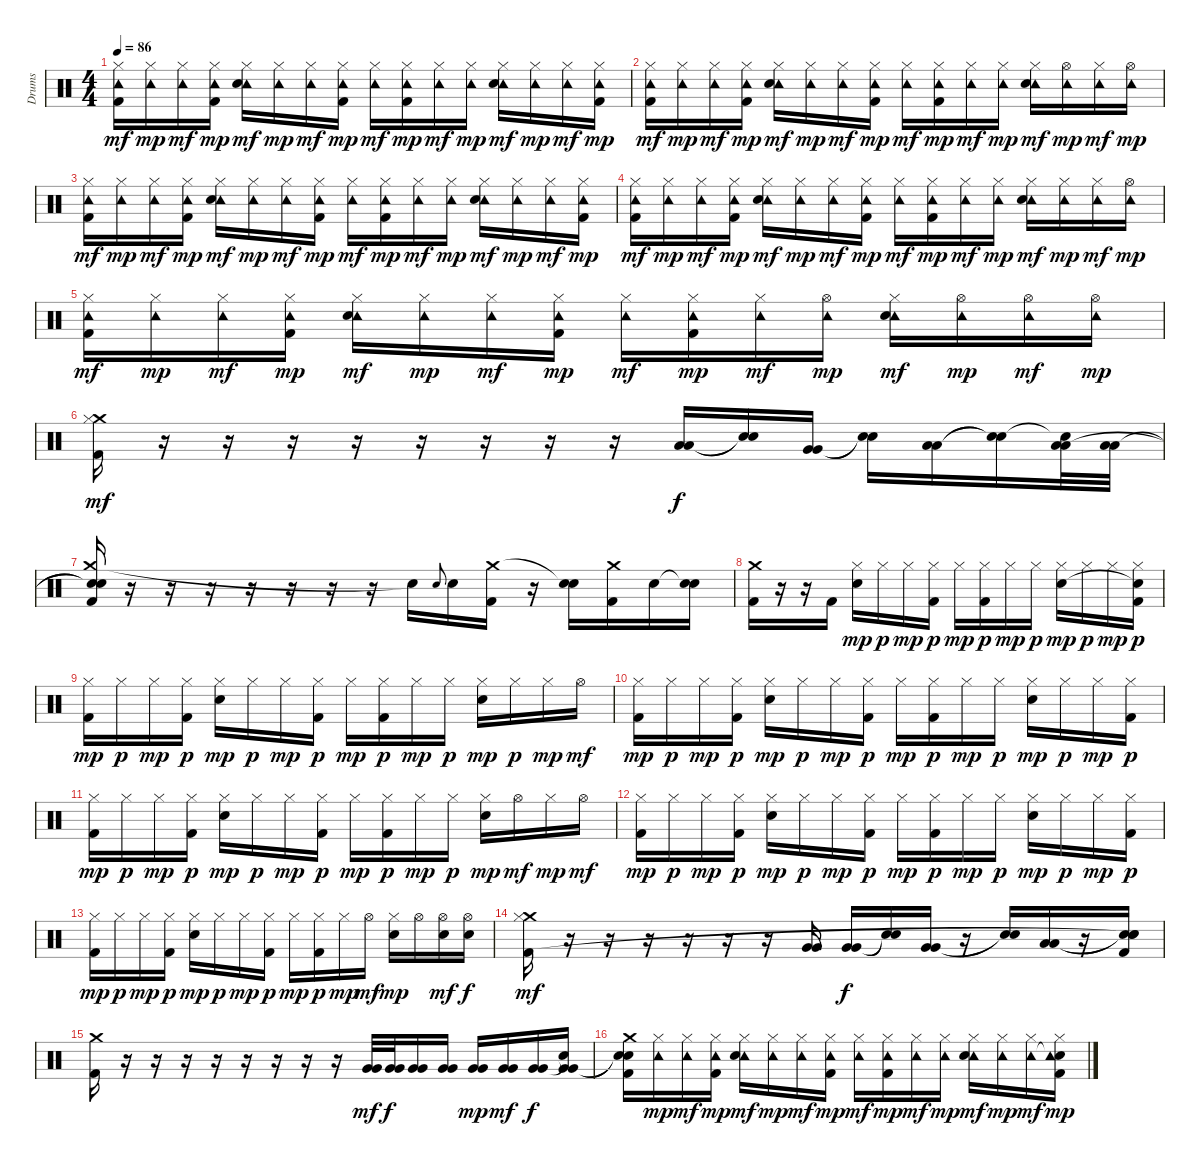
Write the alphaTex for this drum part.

\track ("Drums" "Drums") {instrument percussion}
\staff {score}
\articulation defaults
\ts (4 4)
\tempo 86
\clef neutral
\ks c
("Hi-Hat (closed)" "Tambourine (hit)" "Kick (hit) 2").16{dy mf} ("Hi-Hat (closed)" "Tambourine (hit)").16{dy mp} ("Hi-Hat (closed)" "Tambourine (hit)").16{dy mf} ("Hi-Hat (closed)" "Tambourine (hit)" "Kick (hit) 2").16{dy mp} ("Hi-Hat (closed)" "Tambourine (hit)" "Electric Snare (hit)").16{dy mf} ("Hi-Hat (closed)" "Tambourine (hit)").16{dy mp} ("Hi-Hat (closed)" "Tambourine (hit)").16{dy mf} ("Hi-Hat (closed)" "Tambourine (hit)" "Kick (hit) 2").16{dy mp} ("Hi-Hat (closed)" "Tambourine (hit)").16{dy mf} ("Hi-Hat (closed)" "Tambourine (hit)" "Kick (hit) 2").16{dy mp} ("Hi-Hat (closed)" "Tambourine (hit)").16{dy mf} ("Hi-Hat (closed)" "Tambourine (hit)").16{dy mp} ("Hi-Hat (closed)" "Tambourine (hit)" "Electric Snare (hit)").16{dy mf} ("Hi-Hat (closed)" "Tambourine (hit)").16{dy mp} ("Hi-Hat (closed)" "Tambourine (hit)").16{dy mf} ("Hi-Hat (closed)" "Tambourine (hit)" "Kick (hit) 2").16{dy mp} |
("Hi-Hat (closed)" "Tambourine (hit)" "Kick (hit) 2").16{dy mf} ("Hi-Hat (closed)" "Tambourine (hit)").16{dy mp} ("Hi-Hat (closed)" "Tambourine (hit)").16{dy mf} ("Hi-Hat (closed)" "Tambourine (hit)" "Kick (hit) 2").16{dy mp} ("Hi-Hat (closed)" "Tambourine (hit)" "Electric Snare (hit)").16{dy mf} ("Hi-Hat (closed)" "Tambourine (hit)").16{dy mp} ("Hi-Hat (closed)" "Tambourine (hit)").16{dy mf} ("Hi-Hat (closed)" "Tambourine (hit)" "Kick (hit) 2").16{dy mp} ("Hi-Hat (closed)" "Tambourine (hit)").16{dy mf} ("Hi-Hat (closed)" "Tambourine (hit)" "Kick (hit) 2").16{dy mp} ("Hi-Hat (closed)" "Tambourine (hit)").16{dy mf} ("Hi-Hat (closed)" "Tambourine (hit)").16{dy mp} ("Hi-Hat (closed)" "Tambourine (hit)" "Electric Snare (hit)").16{dy mf} ("Hi-Hat (open)" "Tambourine (hit)").16{dy mp} ("Hi-Hat (closed)" "Tambourine (hit)").16{dy mf} ("Hi-Hat (open)" "Tambourine (hit)").16{dy mp} |
("Hi-Hat (closed)" "Tambourine (hit)" "Kick (hit) 2").16{dy mf} ("Hi-Hat (closed)" "Tambourine (hit)").16{dy mp} ("Hi-Hat (closed)" "Tambourine (hit)").16{dy mf} ("Hi-Hat (closed)" "Tambourine (hit)" "Kick (hit) 2").16{dy mp} ("Hi-Hat (closed)" "Tambourine (hit)" "Electric Snare (hit)").16{dy mf} ("Hi-Hat (closed)" "Tambourine (hit)").16{dy mp} ("Hi-Hat (closed)" "Tambourine (hit)").16{dy mf} ("Hi-Hat (closed)" "Tambourine (hit)" "Kick (hit) 2").16{dy mp} ("Hi-Hat (closed)" "Tambourine (hit)").16{dy mf} ("Hi-Hat (closed)" "Tambourine (hit)" "Kick (hit) 2").16{dy mp} ("Hi-Hat (closed)" "Tambourine (hit)").16{dy mf} ("Hi-Hat (closed)" "Tambourine (hit)").16{dy mp} ("Hi-Hat (closed)" "Tambourine (hit)" "Electric Snare (hit)").16{dy mf} ("Hi-Hat (closed)" "Tambourine (hit)").16{dy mp} ("Hi-Hat (closed)" "Tambourine (hit)").16{dy mf} ("Hi-Hat (closed)" "Tambourine (hit)" "Kick (hit) 2").16{dy mp} |
("Hi-Hat (closed)" "Tambourine (hit)" "Kick (hit) 2").16{dy mf} ("Hi-Hat (closed)" "Tambourine (hit)").16{dy mp} ("Hi-Hat (closed)" "Tambourine (hit)").16{dy mf} ("Hi-Hat (closed)" "Tambourine (hit)" "Kick (hit) 2").16{dy mp} ("Hi-Hat (closed)" "Tambourine (hit)" "Electric Snare (hit)").16{dy mf} ("Hi-Hat (closed)" "Tambourine (hit)").16{dy mp} ("Hi-Hat (closed)" "Tambourine (hit)").16{dy mf} ("Hi-Hat (closed)" "Tambourine (hit)" "Kick (hit) 2").16{dy mp} ("Hi-Hat (closed)" "Tambourine (hit)").16{dy mf} ("Hi-Hat (closed)" "Tambourine (hit)" "Kick (hit) 2").16{dy mp} ("Hi-Hat (closed)" "Tambourine (hit)").16{dy mf} ("Hi-Hat (closed)" "Tambourine (hit)").16{dy mp} ("Hi-Hat (closed)" "Tambourine (hit)" "Electric Snare (hit)").16{dy mf} ("Hi-Hat (closed)" "Tambourine (hit)").16{dy mp} ("Hi-Hat (closed)" "Tambourine (hit)").16{dy mf} ("Hi-Hat (open)" "Tambourine (hit)").16{dy mp} |
("Hi-Hat (closed)" "Tambourine (hit)" "Kick (hit) 2").16{dy mf} ("Hi-Hat (closed)" "Tambourine (hit)").16{dy mp} ("Hi-Hat (closed)" "Tambourine (hit)").16{dy mf} ("Hi-Hat (closed)" "Tambourine (hit)" "Kick (hit) 2").16{dy mp} ("Hi-Hat (closed)" "Tambourine (hit)" "Electric Snare (hit)").16{dy mf} ("Hi-Hat (closed)" "Tambourine (hit)").16{dy mp} ("Hi-Hat (closed)" "Tambourine (hit)").16{dy mf} ("Hi-Hat (closed)" "Tambourine (hit)" "Kick (hit) 2").16{dy mp} ("Hi-Hat (closed)" "Tambourine (hit)").16{dy mf} ("Hi-Hat (closed)" "Tambourine (hit)" "Kick (hit) 2").16{dy mp} ("Hi-Hat (closed)" "Tambourine (hit)").16{dy mf} ("Hi-Hat (open)" "Tambourine (hit)").16{dy mp} ("Hi-Hat (closed)" "Tambourine (hit)" "Electric Snare (hit)").16{dy mf} ("Hi-Hat (open)" "Tambourine (hit)").16{dy mp} ("Hi-Hat (open)" "Tambourine (hit)").16{dy mf} ("Hi-Hat (open)" "Tambourine (hit)").16{dy mp} |
("Crash medium (hit)" "Hi-Hat (closed)" "Kick (hit) 2").16{dy mf} r.16 r.16 r.16 r.16 r.16 r.16 r.16 r.16 ("Low Tom (hit)" "Low Tom (hit)").16{dy f} ("Snare (hit)"{t} "Snare (hit)"{t}).16 ("Very Low Tom (hit)" "Very Low Tom (hit)").16 ("Snare (hit)"{t} "Snare (hit)"{t}).16 ("Low Floor Tom (hit)" "Low Floor Tom (hit)").16 ("Snare (hit)"{t} "Snare (hit)"{t}).16 ("Snare (hit)"{t} "Low Floor Tom (hit)" "Low Floor Tom (hit)").32 ("Low Floor Tom (hit)" "Low Floor Tom (hit)").32 |
("Crash medium (hit)" "Snare (hit)"{t} "Snare (hit)"{t} "Kick (hit) 2").16 r.16 r.16 r.16 r.16 r.16 r.16 r.16 "Snare (hit)"{t}.16 "Electric Snare (hit)".8{gr onbeat} "Electric Snare (hit)".16 ("Crash medium (hit)" "Kick (hit) 2").16 r.16 ("Snare (hit)"{t} "Electric Snare (hit)").16 ("Crash medium (hit)" "Kick (hit) 2").16 "Electric Snare (hit)".16 ("Snare (hit)"{t} "Electric Snare (hit)").16 |
("Crash medium (hit)" "Kick (hit) 2").16 r.16 r.16 "Kick (hit) 2".16 ("Hi-Hat (closed)" "Electric Snare (hit)").16{dy mp} "Hi-Hat (closed)".16{dy p} "Hi-Hat (closed)".16{dy mp} ("Hi-Hat (closed)" "Kick (hit) 2").16{dy p} "Hi-Hat (closed)".16{dy mp} ("Hi-Hat (closed)" "Kick (hit) 2").16{dy p} "Hi-Hat (closed)".16{dy mp} "Hi-Hat (closed)".16{dy p} ("Hi-Hat (closed)" "Electric Snare (hit)").16{dy mp} "Hi-Hat (closed)".16{dy p} "Hi-Hat (closed)".16{dy mp} ("Hi-Hat (closed)" "Snare (hit)"{t} "Kick (hit) 2").16{dy p} |
("Hi-Hat (closed)" "Kick (hit) 2").16{dy mp} "Hi-Hat (closed)".16{dy p} "Hi-Hat (closed)".16{dy mp} ("Hi-Hat (closed)" "Kick (hit) 2").16{dy p} ("Hi-Hat (closed)" "Electric Snare (hit)").16{dy mp} "Hi-Hat (closed)".16{dy p} "Hi-Hat (closed)".16{dy mp} ("Hi-Hat (closed)" "Kick (hit) 2").16{dy p} "Hi-Hat (closed)".16{dy mp} ("Hi-Hat (closed)" "Kick (hit) 2").16{dy p} "Hi-Hat (closed)".16{dy mp} "Hi-Hat (closed)".16{dy p} ("Hi-Hat (closed)" "Electric Snare (hit)").16{dy mp} "Hi-Hat (closed)".16{dy p} "Hi-Hat (closed)".16{dy mp} "Hi-Hat (open)".16{dy mf} |
("Hi-Hat (closed)" "Kick (hit) 2").16{dy mp} "Hi-Hat (closed)".16{dy p} "Hi-Hat (closed)".16{dy mp} ("Hi-Hat (closed)" "Kick (hit) 2").16{dy p} ("Hi-Hat (closed)" "Electric Snare (hit)").16{dy mp} "Hi-Hat (closed)".16{dy p} "Hi-Hat (closed)".16{dy mp} ("Hi-Hat (closed)" "Kick (hit) 2").16{dy p} "Hi-Hat (closed)".16{dy mp} ("Hi-Hat (closed)" "Kick (hit) 2").16{dy p} "Hi-Hat (closed)".16{dy mp} "Hi-Hat (closed)".16{dy p} ("Hi-Hat (closed)" "Electric Snare (hit)").16{dy mp} "Hi-Hat (closed)".16{dy p} "Hi-Hat (closed)".16{dy mp} ("Hi-Hat (closed)" "Kick (hit) 2").16{dy p} |
("Hi-Hat (closed)" "Kick (hit) 2").16{dy mp} "Hi-Hat (closed)".16{dy p} "Hi-Hat (closed)".16{dy mp} ("Hi-Hat (closed)" "Kick (hit) 2").16{dy p} ("Hi-Hat (closed)" "Electric Snare (hit)").16{dy mp} "Hi-Hat (closed)".16{dy p} "Hi-Hat (closed)".16{dy mp} ("Hi-Hat (closed)" "Kick (hit) 2").16{dy p} "Hi-Hat (closed)".16{dy mp} ("Hi-Hat (closed)" "Kick (hit) 2").16{dy p} "Hi-Hat (closed)".16{dy mp} "Hi-Hat (closed)".16{dy p} ("Hi-Hat (closed)" "Electric Snare (hit)").16{dy mp} "Hi-Hat (open)".16{dy mf} "Hi-Hat (closed)".16{dy mp} "Hi-Hat (open)".16{dy mf} |
("Hi-Hat (closed)" "Kick (hit) 2").16{dy mp} "Hi-Hat (closed)".16{dy p} "Hi-Hat (closed)".16{dy mp} ("Hi-Hat (closed)" "Kick (hit) 2").16{dy p} ("Hi-Hat (closed)" "Electric Snare (hit)").16{dy mp} "Hi-Hat (closed)".16{dy p} "Hi-Hat (closed)".16{dy mp} ("Hi-Hat (closed)" "Kick (hit) 2").16{dy p} "Hi-Hat (closed)".16{dy mp} ("Hi-Hat (closed)" "Kick (hit) 2").16{dy p} "Hi-Hat (closed)".16{dy mp} "Hi-Hat (closed)".16{dy p} ("Hi-Hat (closed)" "Electric Snare (hit)").16{dy mp} "Hi-Hat (closed)".16{dy p} "Hi-Hat (closed)".16{dy mp} ("Hi-Hat (closed)" "Kick (hit) 2").16{dy p} |
("Hi-Hat (closed)" "Kick (hit) 2").16{dy mp} "Hi-Hat (closed)".16{dy p} "Hi-Hat (closed)".16{dy mp} ("Hi-Hat (closed)" "Kick (hit) 2").16{dy p} ("Hi-Hat (closed)" "Electric Snare (hit)").16{dy mp} "Hi-Hat (closed)".16{dy p} "Hi-Hat (closed)".16{dy mp} ("Hi-Hat (closed)" "Kick (hit) 2").16{dy p} "Hi-Hat (closed)".16{dy mp} ("Hi-Hat (closed)" "Kick (hit) 2").16{dy p} "Hi-Hat (closed)".16{dy mp} "Hi-Hat (open)".16{dy mf} ("Hi-Hat (closed)" "Electric Snare (hit)").16{dy mp} "Hi-Hat (open)".16 ("Hi-Hat (open)" "Electric Snare (hit)").16{dy mf} ("Hi-Hat (open)" "Electric Snare (hit)").16{dy f} |
("Crash medium (hit)" "Hi-Hat (closed)" "Kick (hit) 2").16{dy mf} r.16 r.16 r.16 r.16 r.16 r.16 ("Very Low Tom (hit)" "Very Low Tom (hit)").16 ("Very Low Tom (hit)" "Very Low Tom (hit)").16{dy f} ("Snare (hit)"{t} "Snare (hit)"{t}).16 ("Very Low Tom (hit)" "Very Low Tom (hit)").16 r.16 ("Snare (hit)"{t} "Snare (hit)"{t}).16 ("Low Floor Tom (hit)" "Low Floor Tom (hit)").16 r.16 ("Snare (hit)"{t} "Snare (hit)"{t} "Snare (hit)"{t} "Kick (hit) 2").16 |
("Crash medium (hit)" "Kick (hit) 2").16 r.16 r.16 r.16 r.16 r.16 r.16 r.16 r.16 ("Very Low Tom (hit)" "Very Low Tom (hit)").32{dy mf} ("Very Low Tom (hit)" "Very Low Tom (hit)").32{dy f} ("Very Low Tom (hit)" "Very Low Tom (hit)").16 ("Very Low Tom (hit)" "Very Low Tom (hit)").16 ("Very Low Tom (hit)" "Very Low Tom (hit)").16{dy mp} ("Very Low Tom (hit)" "Very Low Tom (hit)").16{dy mf} ("Very Low Tom (hit)" "Very Low Tom (hit)").16{dy f} ("Snare (hit)"{t} "Very Low Tom (hit)" "Very Low Tom (hit)").16 |
("Crash medium (hit)" "Snare (hit)"{t} "Snare (hit)"{t} "Kick (hit) 2").16 ("Hi-Hat (closed)" "Tambourine (hit)").16{dy mp} ("Hi-Hat (closed)" "Tambourine (hit)").16{dy mf} ("Hi-Hat (closed)" "Tambourine (hit)" "Kick (hit) 2").16{dy mp} ("Hi-Hat (closed)" "Tambourine (hit)" "Electric Snare (hit)").16{dy mf} ("Hi-Hat (closed)" "Tambourine (hit)").16{dy mp} ("Hi-Hat (closed)" "Tambourine (hit)").16{dy mf} ("Hi-Hat (closed)" "Tambourine (hit)" "Kick (hit) 2").16{dy mp} ("Hi-Hat (closed)" "Tambourine (hit)").16{dy mf} ("Hi-Hat (closed)" "Tambourine (hit)" "Kick (hit) 2").16{dy mp} ("Hi-Hat (closed)" "Tambourine (hit)").16{dy mf} ("Hi-Hat (closed)" "Tambourine (hit)").16{dy mp} ("Hi-Hat (closed)" "Tambourine (hit)" "Electric Snare (hit)").16{dy mf} ("Hi-Hat (closed)" "Tambourine (hit)").16{dy mp} ("Hi-Hat (closed)" "Tambourine (hit)").16{dy mf} ("Hi-Hat (closed)" "Snare (hit)"{t} "Tambourine (hit)" "Kick (hit) 2").16{dy mp}
